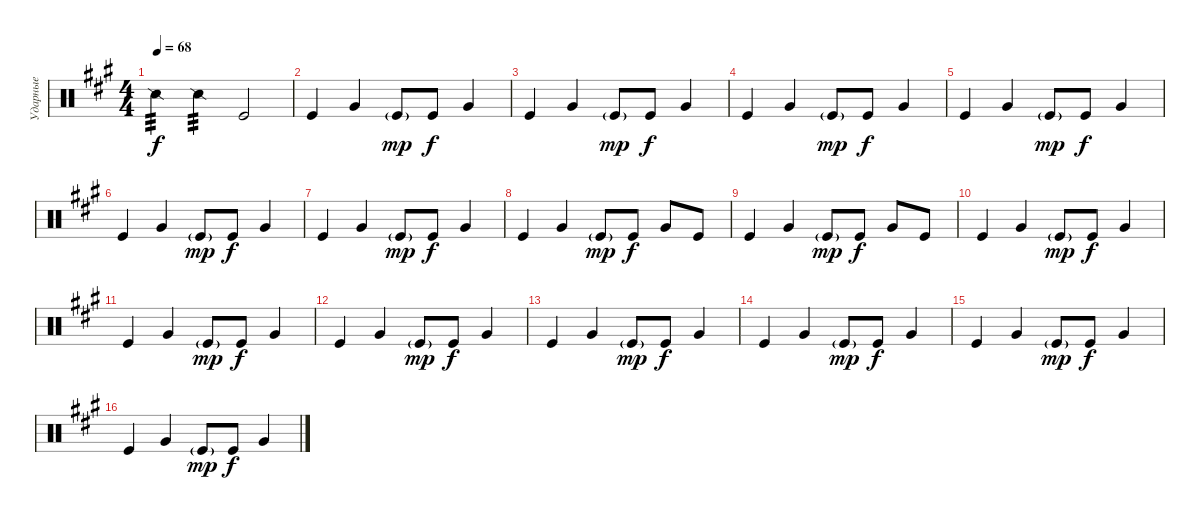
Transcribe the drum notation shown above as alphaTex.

\track ("Ударные" "Ударные") {instrument percussion}
\staff
\articulation defaults
\ts (4 4)
\tempo 68
\clef neutral
\ks a "Snare (side stick) 2".4{tp 3 dy f} "Snare (side stick) 2".4{tp 3} "Kick (hit)".2
|
"Kick (hit)".4 "Very Low Tom (hit)".4 "Kick (hit)"{g}.8{dy mp} "Kick (hit)".8{dy f} "Very Low Tom (hit)".4 |
"Kick (hit)".4 "Very Low Tom (hit)".4 "Kick (hit)"{g}.8{dy mp} "Kick (hit)".8{dy f} "Very Low Tom (hit)".4 |
"Kick (hit)".4 "Very Low Tom (hit)".4 "Kick (hit)"{g}.8{dy mp} "Kick (hit)".8{dy f} "Very Low Tom (hit)".4 |
"Kick (hit)".4 "Very Low Tom (hit)".4 "Kick (hit)"{g}.8{dy mp} "Kick (hit)".8{dy f} "Very Low Tom (hit)".4 |
"Kick (hit)".4 "Very Low Tom (hit)".4 "Kick (hit)"{g}.8{dy mp} "Kick (hit)".8{dy f} "Very Low Tom (hit)".4 |
"Kick (hit)".4 "Very Low Tom (hit)".4 "Kick (hit)"{g}.8{dy mp} "Kick (hit)".8{dy f} "Very Low Tom (hit)".4 |
"Kick (hit)".4 "Very Low Tom (hit)".4 "Kick (hit)"{g}.8{dy mp} "Kick (hit)".8{dy f} "Very Low Tom (hit)".8 "Kick (hit)".8 |
"Kick (hit)".4 "Very Low Tom (hit)".4 "Kick (hit)"{g}.8{dy mp} "Kick (hit)".8{dy f} "Very Low Tom (hit)".8 "Kick (hit)".8 |
"Kick (hit)".4 "Very Low Tom (hit)".4 "Kick (hit)"{g}.8{dy mp} "Kick (hit)".8{dy f} "Very Low Tom (hit)".4 |
"Kick (hit)".4 "Very Low Tom (hit)".4 "Kick (hit)"{g}.8{dy mp} "Kick (hit)".8{dy f} "Very Low Tom (hit)".4 |
"Kick (hit)".4 "Very Low Tom (hit)".4 "Kick (hit)"{g}.8{dy mp} "Kick (hit)".8{dy f} "Very Low Tom (hit)".4 |
"Kick (hit)".4 "Very Low Tom (hit)".4 "Kick (hit)"{g}.8{dy mp} "Kick (hit)".8{dy f} "Very Low Tom (hit)".4 |
"Kick (hit)".4 "Very Low Tom (hit)".4 "Kick (hit)"{g}.8{dy mp} "Kick (hit)".8{dy f} "Very Low Tom (hit)".4 |
"Kick (hit)".4 "Very Low Tom (hit)".4 "Kick (hit)"{g}.8{dy mp} "Kick (hit)".8{dy f} "Very Low Tom (hit)".4 |
"Kick (hit)".4 "Very Low Tom (hit)".4 "Kick (hit)"{g}.8{dy mp} "Kick (hit)".8{dy f} "Very Low Tom (hit)".4
